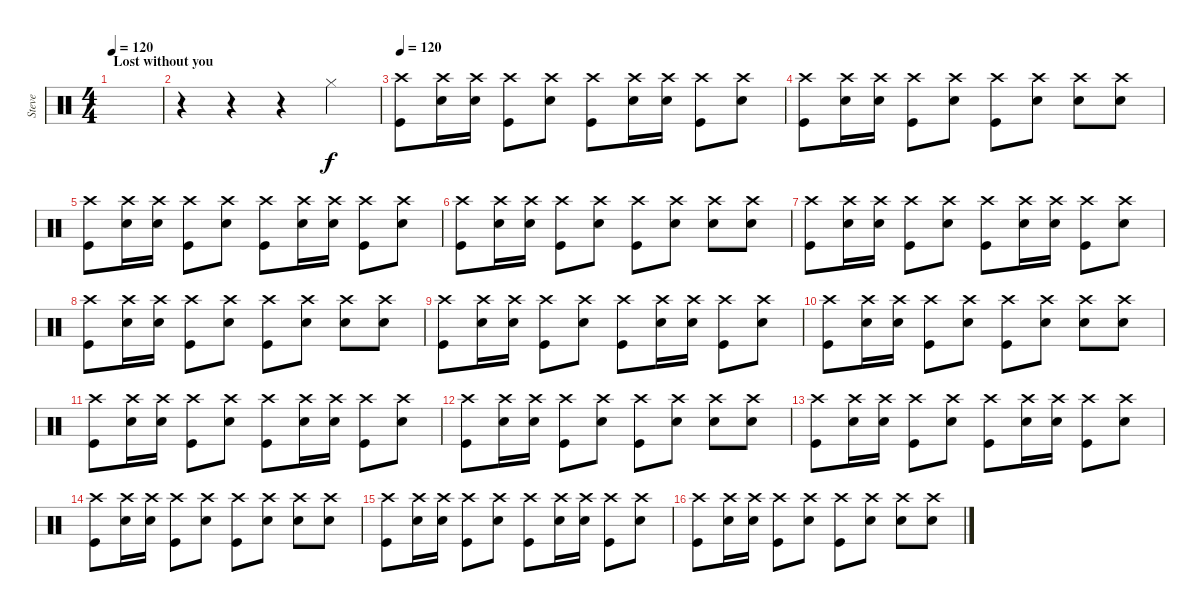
\track ("Steve" "Steve") {instrument percussion}
\staff {score}
\articulation defaults
\ts (4 4)
\section ("" "Lost without you")
\tempo 120
\clef neutral
\ks c
|
r.4 r.4 r.4 "Hi-Hat (closed)".4 |
\tempo 120
("Crash high (hit)" "Kick (hit)").8 ("Crash high (hit)" "Snare (hit) 2").16 ("Crash high (hit)" "Snare (hit) 2").16 ("Crash high (hit)" "Kick (hit)").8 ("Crash high (hit)" "Snare (hit) 2").8 ("Crash high (hit)" "Kick (hit)").8 ("Crash high (hit)" "Snare (hit) 2").16 ("Crash high (hit)" "Snare (hit) 2").16 ("Crash high (hit)" "Kick (hit)").8 ("Crash high (hit)" "Snare (hit) 2").8 |
("Crash high (hit)" "Kick (hit)").8 ("Crash high (hit)" "Snare (hit) 2").16 ("Crash high (hit)" "Snare (hit) 2").16 ("Crash high (hit)" "Kick (hit)").8 ("Crash high (hit)" "Snare (hit) 2").8 ("Crash high (hit)" "Kick (hit)").8 ("Crash high (hit)" "Snare (hit) 2").8 ("Crash high (hit)" "Snare (hit) 2").8 ("Crash high (hit)" "Snare (hit) 2").8 |
("Crash high (hit)" "Kick (hit)").8 ("Crash high (hit)" "Snare (hit) 2").16 ("Crash high (hit)" "Snare (hit) 2").16 ("Crash high (hit)" "Kick (hit)").8 ("Crash high (hit)" "Snare (hit) 2").8 ("Crash high (hit)" "Kick (hit)").8 ("Crash high (hit)" "Snare (hit) 2").16 ("Crash high (hit)" "Snare (hit) 2").16 ("Crash high (hit)" "Kick (hit)").8 ("Crash high (hit)" "Snare (hit) 2").8 |
("Crash high (hit)" "Kick (hit)").8 ("Crash high (hit)" "Snare (hit) 2").16 ("Crash high (hit)" "Snare (hit) 2").16 ("Crash high (hit)" "Kick (hit)").8 ("Crash high (hit)" "Snare (hit) 2").8 ("Crash high (hit)" "Kick (hit)").8 ("Crash high (hit)" "Snare (hit) 2").8 ("Crash high (hit)" "Snare (hit) 2").8 ("Crash high (hit)" "Snare (hit) 2").8 |
("Crash high (hit)" "Kick (hit)").8 ("Crash high (hit)" "Snare (hit) 2").16 ("Crash high (hit)" "Snare (hit) 2").16 ("Crash high (hit)" "Kick (hit)").8 ("Crash high (hit)" "Snare (hit) 2").8 ("Crash high (hit)" "Kick (hit)").8 ("Crash high (hit)" "Snare (hit) 2").16 ("Crash high (hit)" "Snare (hit) 2").16 ("Crash high (hit)" "Kick (hit)").8 ("Crash high (hit)" "Snare (hit) 2").8 |
("Crash high (hit)" "Kick (hit)").8 ("Crash high (hit)" "Snare (hit) 2").16 ("Crash high (hit)" "Snare (hit) 2").16 ("Crash high (hit)" "Kick (hit)").8 ("Crash high (hit)" "Snare (hit) 2").8 ("Crash high (hit)" "Kick (hit)").8 ("Crash high (hit)" "Snare (hit) 2").8 ("Crash high (hit)" "Snare (hit) 2").8 ("Crash high (hit)" "Snare (hit) 2").8 |
("Crash high (hit)" "Kick (hit)").8 ("Crash high (hit)" "Snare (hit) 2").16 ("Crash high (hit)" "Snare (hit) 2").16 ("Crash high (hit)" "Kick (hit)").8 ("Crash high (hit)" "Snare (hit) 2").8 ("Crash high (hit)" "Kick (hit)").8 ("Crash high (hit)" "Snare (hit) 2").16 ("Crash high (hit)" "Snare (hit) 2").16 ("Crash high (hit)" "Kick (hit)").8 ("Crash high (hit)" "Snare (hit) 2").8 |
("Crash high (hit)" "Kick (hit)").8 ("Crash high (hit)" "Snare (hit) 2").16 ("Crash high (hit)" "Snare (hit) 2").16 ("Crash high (hit)" "Kick (hit)").8 ("Crash high (hit)" "Snare (hit) 2").8 ("Crash high (hit)" "Kick (hit)").8 ("Crash high (hit)" "Snare (hit) 2").8 ("Crash high (hit)" "Snare (hit) 2").8 ("Crash high (hit)" "Snare (hit) 2").8 |
("Crash high (hit)" "Kick (hit)").8 ("Crash high (hit)" "Snare (hit) 2").16 ("Crash high (hit)" "Snare (hit) 2").16 ("Crash high (hit)" "Kick (hit)").8 ("Crash high (hit)" "Snare (hit) 2").8 ("Crash high (hit)" "Kick (hit)").8 ("Crash high (hit)" "Snare (hit) 2").16 ("Crash high (hit)" "Snare (hit) 2").16 ("Crash high (hit)" "Kick (hit)").8 ("Crash high (hit)" "Snare (hit) 2").8 |
("Crash high (hit)" "Kick (hit)").8 ("Crash high (hit)" "Snare (hit) 2").16 ("Crash high (hit)" "Snare (hit) 2").16 ("Crash high (hit)" "Kick (hit)").8 ("Crash high (hit)" "Snare (hit) 2").8 ("Crash high (hit)" "Kick (hit)").8 ("Crash high (hit)" "Snare (hit) 2").8 ("Crash high (hit)" "Snare (hit) 2").8 ("Crash high (hit)" "Snare (hit) 2").8 |
("Crash high (hit)" "Kick (hit)").8 ("Crash high (hit)" "Snare (hit) 2").16 ("Crash high (hit)" "Snare (hit) 2").16 ("Crash high (hit)" "Kick (hit)").8 ("Crash high (hit)" "Snare (hit) 2").8 ("Crash high (hit)" "Kick (hit)").8 ("Crash high (hit)" "Snare (hit) 2").16 ("Crash high (hit)" "Snare (hit) 2").16 ("Crash high (hit)" "Kick (hit)").8 ("Crash high (hit)" "Snare (hit) 2").8 |
("Crash high (hit)" "Kick (hit)").8 ("Crash high (hit)" "Snare (hit) 2").16 ("Crash high (hit)" "Snare (hit) 2").16 ("Crash high (hit)" "Kick (hit)").8 ("Crash high (hit)" "Snare (hit) 2").8 ("Crash high (hit)" "Kick (hit)").8 ("Crash high (hit)" "Snare (hit) 2").8 ("Crash high (hit)" "Snare (hit) 2").8 ("Crash high (hit)" "Snare (hit) 2").8 |
("Crash high (hit)" "Kick (hit)").8 ("Crash high (hit)" "Snare (hit) 2").16 ("Crash high (hit)" "Snare (hit) 2").16 ("Crash high (hit)" "Kick (hit)").8 ("Crash high (hit)" "Snare (hit) 2").8 ("Crash high (hit)" "Kick (hit)").8 ("Crash high (hit)" "Snare (hit) 2").16 ("Crash high (hit)" "Snare (hit) 2").16 ("Crash high (hit)" "Kick (hit)").8 ("Crash high (hit)" "Snare (hit) 2").8 |
("Crash high (hit)" "Kick (hit)").8 ("Crash high (hit)" "Snare (hit) 2").16 ("Crash high (hit)" "Snare (hit) 2").16 ("Crash high (hit)" "Kick (hit)").8 ("Crash high (hit)" "Snare (hit) 2").8 ("Crash high (hit)" "Kick (hit)").8 ("Crash high (hit)" "Snare (hit) 2").8 ("Crash high (hit)" "Snare (hit) 2").8 ("Crash high (hit)" "Snare (hit) 2").8
